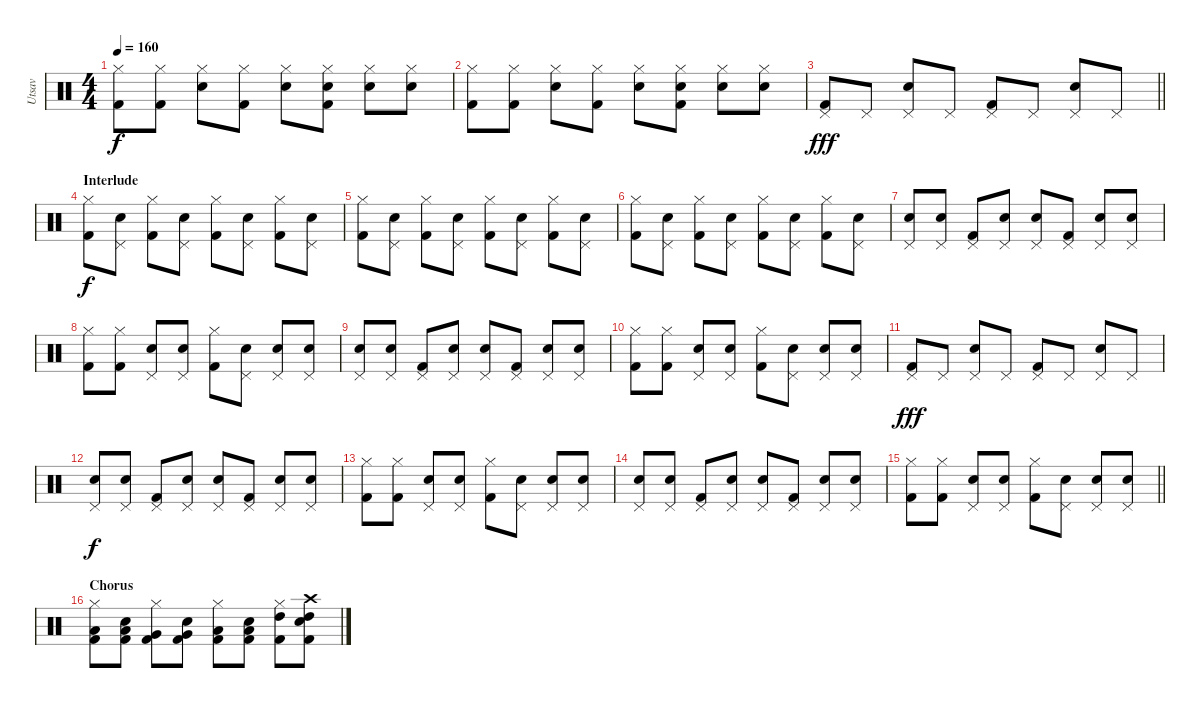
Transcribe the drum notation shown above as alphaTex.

\track ("Utsav" "Utsav") {instrument percussion}
\staff {score}
\articulation defaults
\ts (4 4)
\tempo 160
\clef neutral
\ks c
("Hi-Hat (closed)" "Kick (hit) 2").8{dy f} ("Hi-Hat (closed)" "Kick (hit) 2").8 ("Hi-Hat (closed)" "Electric Snare (hit)").8 ("Hi-Hat (closed)" "Kick (hit) 2").8 ("Hi-Hat (closed)" "Electric Snare (hit)").8 ("Hi-Hat (closed)" "Snare (hit) 2" "Kick (hit) 2").8 ("Hi-Hat (closed)" "Snare (hit) 2").8 ("Hi-Hat (closed)" "Snare (hit) 2").8 |
("Hi-Hat (closed)" "Kick (hit) 2").8 ("Hi-Hat (closed)" "Kick (hit) 2").8 ("Hi-Hat (closed)" "Electric Snare (hit)").8 ("Hi-Hat (closed)" "Kick (hit) 2").8 ("Hi-Hat (closed)" "Electric Snare (hit)").8 ("Hi-Hat (closed)" "Snare (hit) 2" "Kick (hit) 2").8 ("Hi-Hat (closed)" "Snare (hit) 2").8 ("Hi-Hat (closed)" "Snare (hit) 2").8 |
\barLineRight lightlight
("Pedal Hi-Hat (hit)" "Kick (hit) 2").8{dy fff} "Pedal Hi-Hat (hit)".8 ("Pedal Hi-Hat (hit)" "Electric Snare (hit)").8 "Pedal Hi-Hat (hit)".8 ("Pedal Hi-Hat (hit)" "Kick (hit) 2").8 "Pedal Hi-Hat (hit)".8 ("Pedal Hi-Hat (hit)" "Electric Snare (hit)").8 "Pedal Hi-Hat (hit)".8 |
\section ("" "Interlude")
("Hi-Hat (closed)" "Kick (hit) 2").8{dy f} ("Pedal Hi-Hat (hit)" "Snare (hit) 2").8 ("Hi-Hat (closed)" "Kick (hit) 2").8 ("Pedal Hi-Hat (hit)" "Snare (hit) 2").8 ("Hi-Hat (closed)" "Kick (hit) 2").8 ("Pedal Hi-Hat (hit)" "Snare (hit) 2").8 ("Hi-Hat (closed)" "Kick (hit) 2").8 ("Pedal Hi-Hat (hit)" "Snare (hit) 2").8 |
("Hi-Hat (closed)" "Kick (hit) 2").8 ("Pedal Hi-Hat (hit)" "Snare (hit) 2").8 ("Hi-Hat (closed)" "Kick (hit) 2").8 ("Pedal Hi-Hat (hit)" "Snare (hit) 2").8 ("Hi-Hat (closed)" "Kick (hit) 2").8 ("Pedal Hi-Hat (hit)" "Snare (hit) 2").8 ("Hi-Hat (closed)" "Kick (hit) 2").8 ("Pedal Hi-Hat (hit)" "Snare (hit) 2").8 |
("Hi-Hat (closed)" "Kick (hit) 2").8 ("Pedal Hi-Hat (hit)" "Snare (hit) 2").8 ("Hi-Hat (closed)" "Kick (hit) 2").8 ("Pedal Hi-Hat (hit)" "Snare (hit) 2").8 ("Hi-Hat (closed)" "Kick (hit) 2").8 ("Pedal Hi-Hat (hit)" "Snare (hit) 2").8 ("Hi-Hat (closed)" "Kick (hit) 2").8 ("Pedal Hi-Hat (hit)" "Snare (hit) 2").8 |
("Snare (hit) 2" "Pedal Hi-Hat (hit)").8 ("Snare (hit) 2" "Pedal Hi-Hat (hit)").8 ("Pedal Hi-Hat (hit)" "Kick (hit) 2").8 ("Snare (hit) 2" "Pedal Hi-Hat (hit)").8 ("Snare (hit) 2" "Pedal Hi-Hat (hit)").8 ("Pedal Hi-Hat (hit)" "Kick (hit) 2").8 ("Snare (hit) 2" "Pedal Hi-Hat (hit)").8 ("Snare (hit) 2" "Pedal Hi-Hat (hit)").8 |
("Kick (hit) 2" "Hi-Hat (closed)").8 ("Kick (hit) 2" "Hi-Hat (closed)").8 ("Pedal Hi-Hat (hit)" "Snare (hit) 2").8 ("Pedal Hi-Hat (hit)" "Snare (hit) 2").8 ("Kick (hit) 2" "Hi-Hat (closed)").8 ("Pedal Hi-Hat (hit)" "Snare (hit) 2").8 ("Pedal Hi-Hat (hit)" "Snare (hit) 2").8 ("Pedal Hi-Hat (hit)" "Snare (hit) 2").8 |
("Snare (hit) 2" "Pedal Hi-Hat (hit)").8 ("Snare (hit) 2" "Pedal Hi-Hat (hit)").8 ("Pedal Hi-Hat (hit)" "Kick (hit) 2").8 ("Snare (hit) 2" "Pedal Hi-Hat (hit)").8 ("Snare (hit) 2" "Pedal Hi-Hat (hit)").8 ("Pedal Hi-Hat (hit)" "Kick (hit) 2").8 ("Snare (hit) 2" "Pedal Hi-Hat (hit)").8 ("Snare (hit) 2" "Pedal Hi-Hat (hit)").8 |
("Kick (hit) 2" "Hi-Hat (closed)").8 ("Kick (hit) 2" "Hi-Hat (closed)").8 ("Pedal Hi-Hat (hit)" "Snare (hit) 2").8 ("Pedal Hi-Hat (hit)" "Snare (hit) 2").8 ("Kick (hit) 2" "Hi-Hat (closed)").8 ("Pedal Hi-Hat (hit)" "Snare (hit) 2").8 ("Pedal Hi-Hat (hit)" "Snare (hit) 2").8 ("Pedal Hi-Hat (hit)" "Snare (hit) 2").8 |
("Pedal Hi-Hat (hit)" "Kick (hit) 2").8{dy fff} "Pedal Hi-Hat (hit)".8 ("Pedal Hi-Hat (hit)" "Electric Snare (hit)").8 "Pedal Hi-Hat (hit)".8 ("Pedal Hi-Hat (hit)" "Kick (hit) 2").8 "Pedal Hi-Hat (hit)".8 ("Pedal Hi-Hat (hit)" "Electric Snare (hit)").8 "Pedal Hi-Hat (hit)".8 |
("Snare (hit) 2" "Pedal Hi-Hat (hit)").8{dy f} ("Snare (hit) 2" "Pedal Hi-Hat (hit)").8 ("Pedal Hi-Hat (hit)" "Kick (hit) 2").8 ("Snare (hit) 2" "Pedal Hi-Hat (hit)").8 ("Snare (hit) 2" "Pedal Hi-Hat (hit)").8 ("Pedal Hi-Hat (hit)" "Kick (hit) 2").8 ("Snare (hit) 2" "Pedal Hi-Hat (hit)").8 ("Snare (hit) 2" "Pedal Hi-Hat (hit)").8 |
("Kick (hit) 2" "Hi-Hat (closed)").8 ("Kick (hit) 2" "Hi-Hat (closed)").8 ("Pedal Hi-Hat (hit)" "Snare (hit) 2").8 ("Pedal Hi-Hat (hit)" "Snare (hit) 2").8 ("Kick (hit) 2" "Hi-Hat (closed)").8 ("Pedal Hi-Hat (hit)" "Snare (hit) 2").8 ("Pedal Hi-Hat (hit)" "Snare (hit) 2").8 ("Pedal Hi-Hat (hit)" "Snare (hit) 2").8 |
("Snare (hit) 2" "Pedal Hi-Hat (hit)").8 ("Snare (hit) 2" "Pedal Hi-Hat (hit)").8 ("Pedal Hi-Hat (hit)" "Kick (hit) 2").8 ("Snare (hit) 2" "Pedal Hi-Hat (hit)").8 ("Snare (hit) 2" "Pedal Hi-Hat (hit)").8 ("Pedal Hi-Hat (hit)" "Kick (hit) 2").8 ("Snare (hit) 2" "Pedal Hi-Hat (hit)").8 ("Snare (hit) 2" "Pedal Hi-Hat (hit)").8 |
\barLineRight lightlight
("Kick (hit) 2" "Hi-Hat (closed)").8 ("Kick (hit) 2" "Hi-Hat (closed)").8 ("Pedal Hi-Hat (hit)" "Snare (hit) 2").8 ("Pedal Hi-Hat (hit)" "Snare (hit) 2").8 ("Kick (hit) 2" "Hi-Hat (closed)").8 ("Pedal Hi-Hat (hit)" "Snare (hit) 2").8 ("Pedal Hi-Hat (hit)" "Snare (hit) 2").8 ("Pedal Hi-Hat (hit)" "Snare (hit) 2").8 |
\section ("" "Chorus")
("Low Tom (hit)" "Hi-Hat (closed)" "Kick (hit) 2").8 ("Low Tom (hit)" "Snare (hit) 2" "Kick (hit) 2").8 ("Very Low Tom (hit)" "Hi-Hat (closed)" "Kick (hit) 2").8 ("Very Low Tom (hit)" "Snare (hit) 2" "Kick (hit) 2").8 ("Low Floor Tom (hit)" "Hi-Hat (closed)" "Kick (hit) 2").8 ("Low Floor Tom (hit)" "Snare (hit) 2" "Kick (hit) 2").8 ("High Tom (hit)" "Hi-Hat (closed)" "Kick (hit) 2").8 ("High Tom (hit)" "Crash high (hit)" "Snare (hit) 2" "Kick (hit) 2").8
